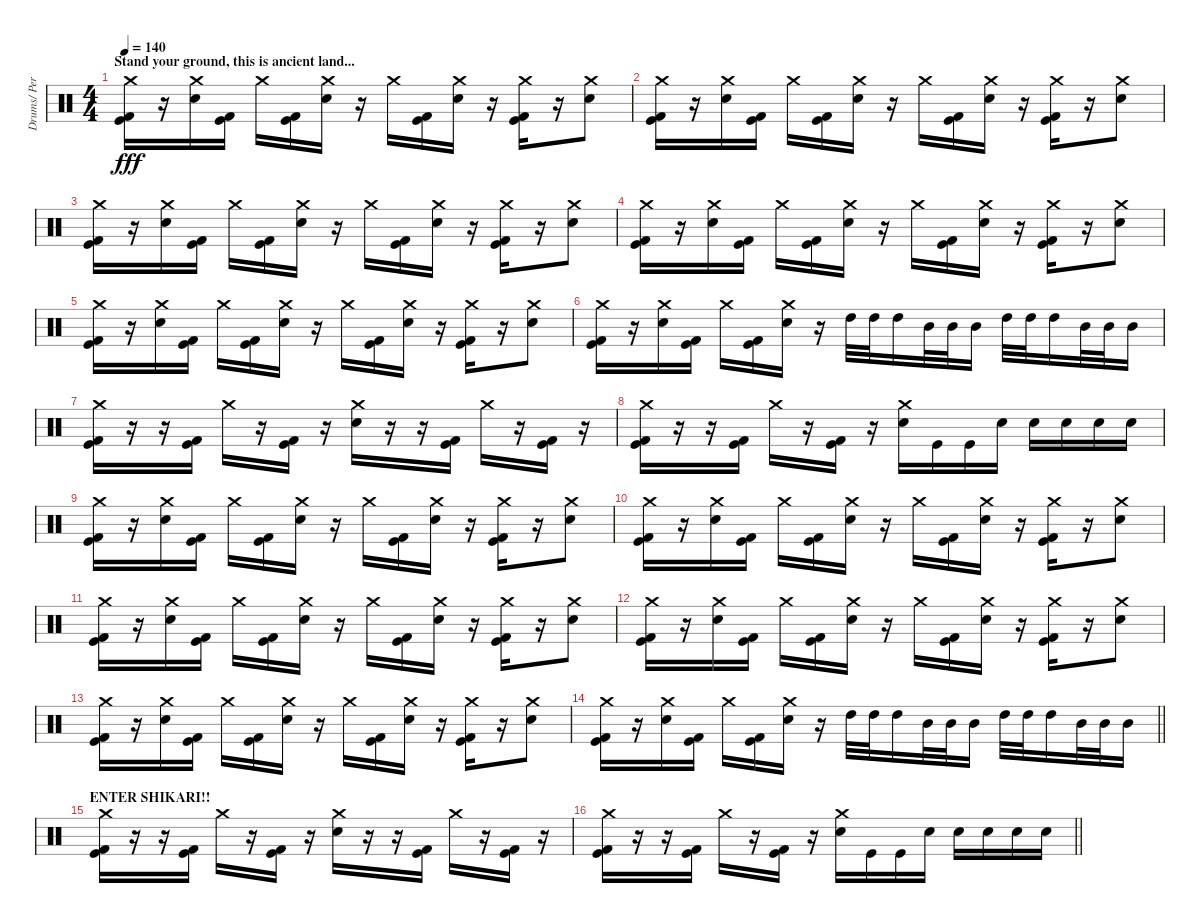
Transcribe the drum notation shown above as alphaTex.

\track ("Drums/ Percussion- Rob" "Drums/ Per") {instrument percussion}
\staff {score}
\articulation defaults
\ts (4 4)
\section ("" "Stand your ground, this is ancient land...")
\tempo 140
\clef neutral
\ks c
("Kick (hit)" "Kick (hit) 2" "Crash medium (hit)").16{dy fff} r.16 ("Snare (hit) 2" "Crash medium (hit)").16 ("Kick (hit)" "Kick (hit) 2").16 "Crash medium (hit)".16 ("Kick (hit)" "Kick (hit) 2").16 ("Snare (hit) 2" "Crash medium (hit)").16 r.16 "Crash medium (hit)".16 ("Kick (hit)" "Kick (hit) 2").16 ("Snare (hit) 2" "Crash medium (hit)").16 r.16 ("Kick (hit)" "Kick (hit) 2" "Crash medium (hit)").16 r.16 ("Snare (hit) 2" "Crash medium (hit)").8 |
("Kick (hit)" "Kick (hit) 2" "Crash medium (hit)").16 r.16 ("Snare (hit) 2" "Crash medium (hit)").16 ("Kick (hit)" "Kick (hit) 2").16 "Crash medium (hit)".16 ("Kick (hit)" "Kick (hit) 2").16 ("Snare (hit) 2" "Crash medium (hit)").16 r.16 "Crash medium (hit)".16 ("Kick (hit)" "Kick (hit) 2").16 ("Snare (hit) 2" "Crash medium (hit)").16 r.16 ("Kick (hit)" "Kick (hit) 2" "Crash medium (hit)").16 r.16 ("Snare (hit) 2" "Crash medium (hit)").8 |
("Kick (hit)" "Kick (hit) 2" "Crash medium (hit)").16 r.16 ("Snare (hit) 2" "Crash medium (hit)").16 ("Kick (hit)" "Kick (hit) 2").16 "Crash medium (hit)".16 ("Kick (hit)" "Kick (hit) 2").16 ("Snare (hit) 2" "Crash medium (hit)").16 r.16 "Crash medium (hit)".16 ("Kick (hit)" "Kick (hit) 2").16 ("Snare (hit) 2" "Crash medium (hit)").16 r.16 ("Kick (hit)" "Kick (hit) 2" "Crash medium (hit)").16 r.16 ("Snare (hit) 2" "Crash medium (hit)").8 |
("Kick (hit)" "Kick (hit) 2" "Crash medium (hit)").16 r.16 ("Snare (hit) 2" "Crash medium (hit)").16 ("Kick (hit)" "Kick (hit) 2").16 "Crash medium (hit)".16 ("Kick (hit)" "Kick (hit) 2").16 ("Snare (hit) 2" "Crash medium (hit)").16 r.16 "Crash medium (hit)".16 ("Kick (hit)" "Kick (hit) 2").16 ("Snare (hit) 2" "Crash medium (hit)").16 r.16 ("Kick (hit)" "Kick (hit) 2" "Crash medium (hit)").16 r.16 ("Snare (hit) 2" "Crash medium (hit)").8 |
("Kick (hit)" "Kick (hit) 2" "Crash medium (hit)").16 r.16 ("Snare (hit) 2" "Crash medium (hit)").16 ("Kick (hit)" "Kick (hit) 2").16 "Crash medium (hit)".16 ("Kick (hit)" "Kick (hit) 2").16 ("Snare (hit) 2" "Crash medium (hit)").16 r.16 "Crash medium (hit)".16 ("Kick (hit)" "Kick (hit) 2").16 ("Snare (hit) 2" "Crash medium (hit)").16 r.16 ("Kick (hit)" "Kick (hit) 2" "Crash medium (hit)").16 r.16 ("Snare (hit) 2" "Crash medium (hit)").8 |
("Kick (hit)" "Kick (hit) 2" "Crash medium (hit)").16 r.16 ("Snare (hit) 2" "Crash medium (hit)").16 ("Kick (hit)" "Kick (hit) 2").16 "Crash medium (hit)".16 ("Kick (hit)" "Kick (hit) 2").16 ("Snare (hit) 2" "Crash medium (hit)").16 r.16 "High Tom (hit)".32 "High Tom (hit)".32 "High Tom (hit)".16 "Mid Tom (hit)".32 "Mid Tom (hit)".32 "Mid Tom (hit)".16 "High Tom (hit)".32 "High Tom (hit)".32 "High Tom (hit)".16 "Mid Tom (hit)".32 "Mid Tom (hit)".32 "Mid Tom (hit)".16 |
("Crash medium (hit)" "Kick (hit)" "Kick (hit) 2").16 r.16 r.16 ("Kick (hit)" "Kick (hit) 2").16 "Crash medium (hit)".16 r.16 ("Kick (hit)" "Kick (hit) 2").16 r.16 ("Crash medium (hit)" "Snare (hit) 2").16 r.16 r.16 ("Kick (hit)" "Kick (hit) 2").16 "Crash medium (hit)".16 r.16 ("Kick (hit)" "Kick (hit) 2").16 r.16 |
("Crash medium (hit)" "Kick (hit)" "Kick (hit) 2").16 r.16 r.16 ("Kick (hit)" "Kick (hit) 2").16 "Crash medium (hit)".16 r.16 ("Kick (hit)" "Kick (hit) 2").16 r.16 ("Crash medium (hit)" "Snare (hit) 2").16 "Kick (hit)".16 "Kick (hit)".16 "Snare (hit) 2".16 "Snare (hit) 2".16 "Snare (hit) 2".16 "Snare (hit) 2".16 "Snare (hit) 2".16 |
("Kick (hit)" "Kick (hit) 2" "Crash medium (hit)").16 r.16 ("Snare (hit) 2" "Crash medium (hit)").16 ("Kick (hit)" "Kick (hit) 2").16 "Crash medium (hit)".16 ("Kick (hit)" "Kick (hit) 2").16 ("Snare (hit) 2" "Crash medium (hit)").16 r.16 "Crash medium (hit)".16 ("Kick (hit)" "Kick (hit) 2").16 ("Snare (hit) 2" "Crash medium (hit)").16 r.16 ("Kick (hit)" "Kick (hit) 2" "Crash medium (hit)").16 r.16 ("Snare (hit) 2" "Crash medium (hit)").8 |
("Kick (hit)" "Kick (hit) 2" "Crash medium (hit)").16 r.16 ("Snare (hit) 2" "Crash medium (hit)").16 ("Kick (hit)" "Kick (hit) 2").16 "Crash medium (hit)".16 ("Kick (hit)" "Kick (hit) 2").16 ("Snare (hit) 2" "Crash medium (hit)").16 r.16 "Crash medium (hit)".16 ("Kick (hit)" "Kick (hit) 2").16 ("Snare (hit) 2" "Crash medium (hit)").16 r.16 ("Kick (hit)" "Kick (hit) 2" "Crash medium (hit)").16 r.16 ("Snare (hit) 2" "Crash medium (hit)").8 |
("Kick (hit)" "Kick (hit) 2" "Crash medium (hit)").16 r.16 ("Snare (hit) 2" "Crash medium (hit)").16 ("Kick (hit)" "Kick (hit) 2").16 "Crash medium (hit)".16 ("Kick (hit)" "Kick (hit) 2").16 ("Snare (hit) 2" "Crash medium (hit)").16 r.16 "Crash medium (hit)".16 ("Kick (hit)" "Kick (hit) 2").16 ("Snare (hit) 2" "Crash medium (hit)").16 r.16 ("Kick (hit)" "Kick (hit) 2" "Crash medium (hit)").16 r.16 ("Snare (hit) 2" "Crash medium (hit)").8 |
("Kick (hit)" "Kick (hit) 2" "Crash medium (hit)").16 r.16 ("Snare (hit) 2" "Crash medium (hit)").16 ("Kick (hit)" "Kick (hit) 2").16 "Crash medium (hit)".16 ("Kick (hit)" "Kick (hit) 2").16 ("Snare (hit) 2" "Crash medium (hit)").16 r.16 "Crash medium (hit)".16 ("Kick (hit)" "Kick (hit) 2").16 ("Snare (hit) 2" "Crash medium (hit)").16 r.16 ("Kick (hit)" "Kick (hit) 2" "Crash medium (hit)").16 r.16 ("Snare (hit) 2" "Crash medium (hit)").8 |
("Kick (hit)" "Kick (hit) 2" "Crash medium (hit)").16 r.16 ("Snare (hit) 2" "Crash medium (hit)").16 ("Kick (hit)" "Kick (hit) 2").16 "Crash medium (hit)".16 ("Kick (hit)" "Kick (hit) 2").16 ("Snare (hit) 2" "Crash medium (hit)").16 r.16 "Crash medium (hit)".16 ("Kick (hit)" "Kick (hit) 2").16 ("Snare (hit) 2" "Crash medium (hit)").16 r.16 ("Kick (hit)" "Kick (hit) 2" "Crash medium (hit)").16 r.16 ("Snare (hit) 2" "Crash medium (hit)").8 |
\barLineRight lightlight
("Kick (hit)" "Kick (hit) 2" "Crash medium (hit)").16 r.16 ("Snare (hit) 2" "Crash medium (hit)").16 ("Kick (hit)" "Kick (hit) 2").16 "Crash medium (hit)".16 ("Kick (hit)" "Kick (hit) 2").16 ("Snare (hit) 2" "Crash medium (hit)").16 r.16 "High Tom (hit)".32 "High Tom (hit)".32 "High Tom (hit)".16 "Mid Tom (hit)".32 "Mid Tom (hit)".32 "Mid Tom (hit)".16 "High Tom (hit)".32 "High Tom (hit)".32 "High Tom (hit)".16 "Mid Tom (hit)".32 "Mid Tom (hit)".32 "Mid Tom (hit)".16 |
\section ("" "ENTER SHIKARI!!")
("Crash medium (hit)" "Kick (hit)" "Kick (hit) 2").16 r.16 r.16 ("Kick (hit)" "Kick (hit) 2").16 "Crash medium (hit)".16 r.16 ("Kick (hit)" "Kick (hit) 2").16 r.16 ("Crash medium (hit)" "Snare (hit) 2").16 r.16 r.16 ("Kick (hit)" "Kick (hit) 2").16 "Crash medium (hit)".16 r.16 ("Kick (hit)" "Kick (hit) 2").16 r.16 |
\barLineRight lightlight
("Crash medium (hit)" "Kick (hit)" "Kick (hit) 2").16 r.16 r.16 ("Kick (hit)" "Kick (hit) 2").16 "Crash medium (hit)".16 r.16 ("Kick (hit)" "Kick (hit) 2").16 r.16 ("Crash medium (hit)" "Snare (hit) 2").16 "Kick (hit)".16 "Kick (hit)".16 "Snare (hit) 2".16 "Snare (hit) 2".16 "Snare (hit) 2".16 "Snare (hit) 2".16 "Snare (hit) 2".16
